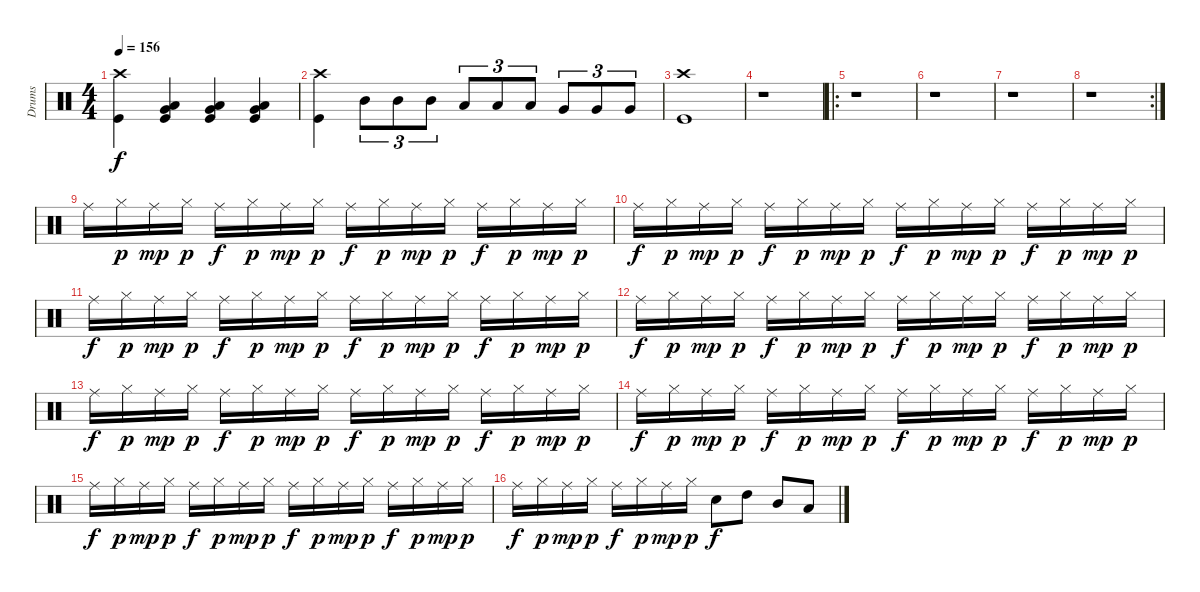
\track ("Drums" "Drums") {instrument percussion}
\staff {score}
\articulation defaults
\ts (4 4)
\tempo 156
\clef neutral
\ks c
("Crash high (hit)" "Kick (hit)").4{dy f} ("Very Low Tom (hit)" "Low Floor Tom (hit)" "Kick (hit)").4 ("Very Low Tom (hit)" "Low Floor Tom (hit)" "Kick (hit)").4 ("Very Low Tom (hit)" "Low Floor Tom (hit)" "Kick (hit)").4 |
("Crash high (hit)" "Kick (hit)").4 "Mid Tom (hit)".8{tu (3 2)} "Mid Tom (hit)".8{tu (3 2)} "Mid Tom (hit)".8{tu (3 2)} "Low Tom (hit)".8{tu (3 2)} "Low Tom (hit)".8{tu (3 2)} "Low Tom (hit)".8{tu (3 2)} "Very Low Tom (hit)".8{tu (3 2)} "Very Low Tom (hit)".8{tu (3 2)} "Very Low Tom (hit)".8{tu (3 2)} |
("Crash high (hit)" "Kick (hit)").1 |
r.1 |
\ro
r.1 |
r.1 |
r.1 |
\rc 2
r.1 |
"Ride (middle)".16 "Hi-Hat (closed)".16{dy p} "Ride (middle)".16{dy mp} "Hi-Hat (closed)".16{dy p} "Ride (middle)".16{dy f} "Hi-Hat (closed)".16{dy p} "Ride (middle)".16{dy mp} "Hi-Hat (closed)".16{dy p} "Ride (middle)".16{dy f} "Hi-Hat (closed)".16{dy p} "Ride (middle)".16{dy mp} "Hi-Hat (closed)".16{dy p} "Ride (middle)".16{dy f} "Hi-Hat (closed)".16{dy p} "Ride (middle)".16{dy mp} "Hi-Hat (closed)".16{dy p} |
"Ride (middle)".16{dy f} "Hi-Hat (closed)".16{dy p} "Ride (middle)".16{dy mp} "Hi-Hat (closed)".16{dy p} "Ride (middle)".16{dy f} "Hi-Hat (closed)".16{dy p} "Ride (middle)".16{dy mp} "Hi-Hat (closed)".16{dy p} "Ride (middle)".16{dy f} "Hi-Hat (closed)".16{dy p} "Ride (middle)".16{dy mp} "Hi-Hat (closed)".16{dy p} "Ride (middle)".16{dy f} "Hi-Hat (closed)".16{dy p} "Ride (middle)".16{dy mp} "Hi-Hat (closed)".16{dy p} |
"Ride (middle)".16{dy f} "Hi-Hat (closed)".16{dy p} "Ride (middle)".16{dy mp} "Hi-Hat (closed)".16{dy p} "Ride (middle)".16{dy f} "Hi-Hat (closed)".16{dy p} "Ride (middle)".16{dy mp} "Hi-Hat (closed)".16{dy p} "Ride (middle)".16{dy f} "Hi-Hat (closed)".16{dy p} "Ride (middle)".16{dy mp} "Hi-Hat (closed)".16{dy p} "Ride (middle)".16{dy f} "Hi-Hat (closed)".16{dy p} "Ride (middle)".16{dy mp} "Hi-Hat (closed)".16{dy p} |
"Ride (middle)".16{dy f} "Hi-Hat (closed)".16{dy p} "Ride (middle)".16{dy mp} "Hi-Hat (closed)".16{dy p} "Ride (middle)".16{dy f} "Hi-Hat (closed)".16{dy p} "Ride (middle)".16{dy mp} "Hi-Hat (closed)".16{dy p} "Ride (middle)".16{dy f} "Hi-Hat (closed)".16{dy p} "Ride (middle)".16{dy mp} "Hi-Hat (closed)".16{dy p} "Ride (middle)".16{dy f} "Hi-Hat (closed)".16{dy p} "Ride (middle)".16{dy mp} "Hi-Hat (closed)".16{dy p} |
"Ride (middle)".16{dy f} "Hi-Hat (closed)".16{dy p} "Ride (middle)".16{dy mp} "Hi-Hat (closed)".16{dy p} "Ride (middle)".16{dy f} "Hi-Hat (closed)".16{dy p} "Ride (middle)".16{dy mp} "Hi-Hat (closed)".16{dy p} "Ride (middle)".16{dy f} "Hi-Hat (closed)".16{dy p} "Ride (middle)".16{dy mp} "Hi-Hat (closed)".16{dy p} "Ride (middle)".16{dy f} "Hi-Hat (closed)".16{dy p} "Ride (middle)".16{dy mp} "Hi-Hat (closed)".16{dy p} |
"Ride (middle)".16{dy f} "Hi-Hat (closed)".16{dy p} "Ride (middle)".16{dy mp} "Hi-Hat (closed)".16{dy p} "Ride (middle)".16{dy f} "Hi-Hat (closed)".16{dy p} "Ride (middle)".16{dy mp} "Hi-Hat (closed)".16{dy p} "Ride (middle)".16{dy f} "Hi-Hat (closed)".16{dy p} "Ride (middle)".16{dy mp} "Hi-Hat (closed)".16{dy p} "Ride (middle)".16{dy f} "Hi-Hat (closed)".16{dy p} "Ride (middle)".16{dy mp} "Hi-Hat (closed)".16{dy p} |
"Ride (middle)".16{dy f} "Hi-Hat (closed)".16{dy p} "Ride (middle)".16{dy mp} "Hi-Hat (closed)".16{dy p} "Ride (middle)".16{dy f} "Hi-Hat (closed)".16{dy p} "Ride (middle)".16{dy mp} "Hi-Hat (closed)".16{dy p} "Ride (middle)".16{dy f} "Hi-Hat (closed)".16{dy p} "Ride (middle)".16{dy mp} "Hi-Hat (closed)".16{dy p} "Ride (middle)".16{dy f} "Hi-Hat (closed)".16{dy p} "Ride (middle)".16{dy mp} "Hi-Hat (closed)".16{dy p} |
"Ride (middle)".16{dy f} "Hi-Hat (closed)".16{dy p} "Ride (middle)".16{dy mp} "Hi-Hat (closed)".16{dy p} "Ride (middle)".16{dy f} "Hi-Hat (closed)".16{dy p} "Ride (middle)".16{dy mp} "Hi-Hat (closed)".16{dy p} "Electric Snare (hit)".8{dy f} "High Tom (hit)".8 "Mid Tom (hit)".8 "Low Tom (hit)".8
